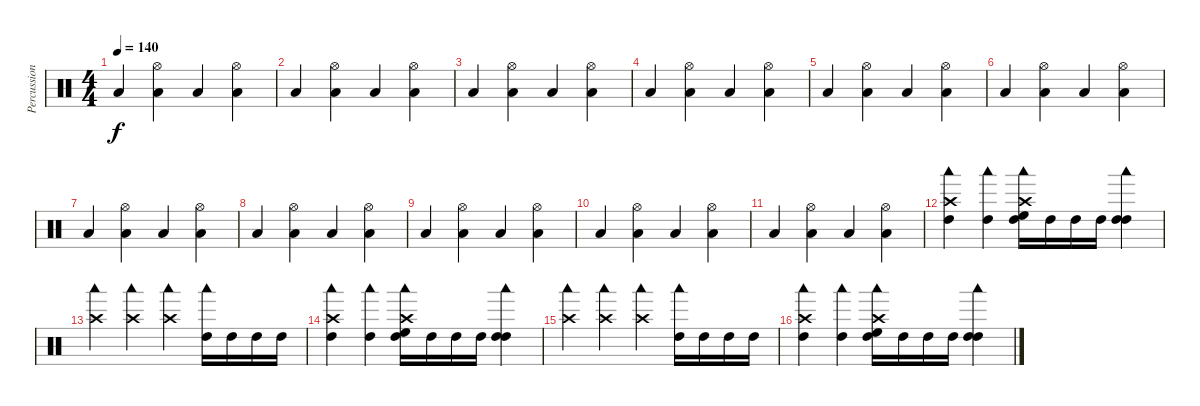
\track ("Percussion" "Percussion") {instrument percussion}
\staff {score}
\articulation defaults
\ts (4 4)
\tempo 140
\clef neutral
\ks c "Low Tom (hit)".4{dy f}
("Hi-Hat (open)" "Low Tom (hit)").4 "Low Tom (hit)".4 ("Hi-Hat (open)" "Low Tom (hit)").4 |
"Low Tom (hit)".4 ("Hi-Hat (open)" "Low Tom (hit)").4 "Low Tom (hit)".4 ("Hi-Hat (open)" "Low Tom (hit)").4 |
"Low Tom (hit)".4 ("Hi-Hat (open)" "Low Tom (hit)").4 "Low Tom (hit)".4 ("Hi-Hat (open)" "Low Tom (hit)").4 |
"Low Tom (hit)".4 ("Hi-Hat (open)" "Low Tom (hit)").4 "Low Tom (hit)".4 ("Hi-Hat (open)" "Low Tom (hit)").4 |
"Low Tom (hit)".4 ("Hi-Hat (open)" "Low Tom (hit)").4 "Low Tom (hit)".4 ("Hi-Hat (open)" "Low Tom (hit)").4 |
"Low Tom (hit)".4 ("Hi-Hat (open)" "Low Tom (hit)").4 "Low Tom (hit)".4 ("Hi-Hat (open)" "Low Tom (hit)").4 |
"Low Tom (hit)".4 ("Hi-Hat (open)" "Low Tom (hit)").4 "Low Tom (hit)".4 ("Hi-Hat (open)" "Low Tom (hit)").4 |
"Low Tom (hit)".4 ("Hi-Hat (open)" "Low Tom (hit)").4 "Low Tom (hit)".4 ("Hi-Hat (open)" "Low Tom (hit)").4 |
"Low Tom (hit)".4 ("Hi-Hat (open)" "Low Tom (hit)").4 "Low Tom (hit)".4 ("Hi-Hat (open)" "Low Tom (hit)").4 |
"Low Tom (hit)".4 ("Hi-Hat (open)" "Low Tom (hit)").4 "Low Tom (hit)".4 ("Hi-Hat (open)" "Low Tom (hit)").4 |
"Low Tom (hit)".4 ("Hi-Hat (open)" "Low Tom (hit)").4 "Low Tom (hit)".4 ("Hi-Hat (open)" "Low Tom (hit)").4 |
("Crash high (hit)" "Woodblock low (hit)" "High Tom (hit)").4 ("Woodblock low (hit)" "High Tom (hit)").4 ("Crash high (hit)" "Woodblock low (hit)" "High Floor Tom (hit)" "High Tom (hit)").16 "High Tom (hit)".16 "High Tom (hit)".16 "High Tom (hit)".16 ("Woodblock low (hit)" "High Tom (hit)" "High Tom (hit)").4 |
("Crash high (hit)" "Woodblock low (hit)").4 ("Crash high (hit)" "Woodblock low (hit)").4 ("Crash high (hit)" "Woodblock low (hit)").4 ("Woodblock low (hit)" "High Tom (hit)").16 "High Tom (hit)".16 "High Tom (hit)".16 "High Tom (hit)".16 |
("Crash high (hit)" "Woodblock low (hit)" "High Tom (hit)").4 ("Woodblock low (hit)" "High Tom (hit)").4 ("Crash high (hit)" "Woodblock low (hit)" "High Floor Tom (hit)" "High Tom (hit)").16 "High Tom (hit)".16 "High Tom (hit)".16 "High Tom (hit)".16 ("Woodblock low (hit)" "High Tom (hit)" "High Tom (hit)").4 |
("Crash high (hit)" "Woodblock low (hit)").4 ("Crash high (hit)" "Woodblock low (hit)").4 ("Crash high (hit)" "Woodblock low (hit)").4 ("Woodblock low (hit)" "High Tom (hit)").16 "High Tom (hit)".16 "High Tom (hit)".16 "High Tom (hit)".16 |
("Crash high (hit)" "Woodblock low (hit)" "High Tom (hit)").4 ("Woodblock low (hit)" "High Tom (hit)").4 ("Crash high (hit)" "Woodblock low (hit)" "High Floor Tom (hit)" "High Tom (hit)").16 "High Tom (hit)".16 "High Tom (hit)".16 "High Tom (hit)".16 ("Woodblock low (hit)" "High Tom (hit)" "High Tom (hit)").4
